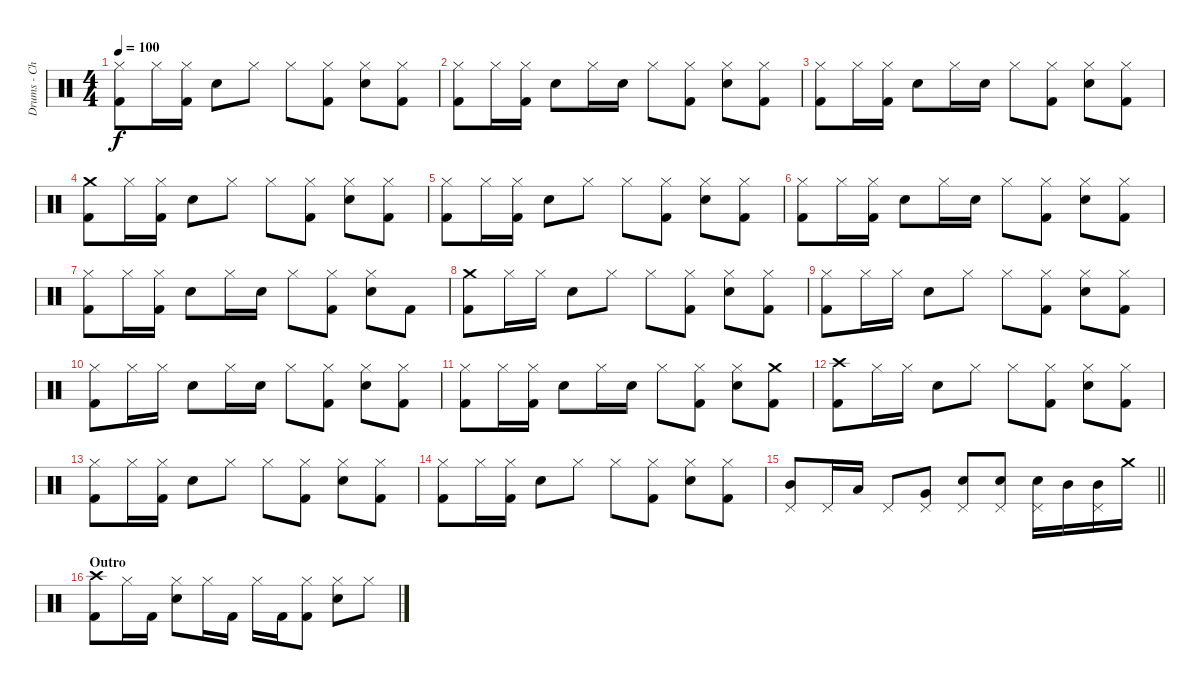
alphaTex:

\track ("Drums - Chad" "Drums - Ch") {instrument percussion}
\staff {score}
\articulation defaults
\ts (4 4)
\tempo 100
\clef neutral
\ks c
("Hi-Hat (closed)" "Kick (hit) 2").8{dy f} "Hi-Hat (closed)".16 ("Hi-Hat (closed)" "Kick (hit) 2").16 "Electric Snare (hit)".8 "Hi-Hat (closed)".8 "Hi-Hat (closed)".8 ("Hi-Hat (closed)" "Kick (hit) 2").8 ("Hi-Hat (closed)" "Electric Snare (hit)").8 ("Hi-Hat (closed)" "Kick (hit) 2").8 |
("Hi-Hat (closed)" "Kick (hit) 2").8 "Hi-Hat (closed)".16 ("Hi-Hat (closed)" "Kick (hit) 2").16 "Electric Snare (hit)".8 "Hi-Hat (closed)".16 "Electric Snare (hit)".16 "Hi-Hat (closed)".8 ("Hi-Hat (closed)" "Kick (hit) 2").8 ("Hi-Hat (closed)" "Electric Snare (hit)").8 ("Hi-Hat (closed)" "Kick (hit) 2").8 |
("Hi-Hat (closed)" "Kick (hit) 2").8 "Hi-Hat (closed)".16 ("Hi-Hat (closed)" "Kick (hit) 2").16 "Electric Snare (hit)".8 "Hi-Hat (closed)".16 "Electric Snare (hit)".16 "Hi-Hat (closed)".8 ("Hi-Hat (closed)" "Kick (hit) 2").8 ("Hi-Hat (closed)" "Electric Snare (hit)").8 ("Hi-Hat (closed)" "Kick (hit) 2").8 |
("Crash medium (hit)" "Kick (hit) 2").8 "Hi-Hat (closed)".16 ("Hi-Hat (closed)" "Kick (hit) 2").16 "Electric Snare (hit)".8 "Hi-Hat (closed)".8 "Hi-Hat (closed)".8 ("Hi-Hat (closed)" "Kick (hit) 2").8 ("Hi-Hat (closed)" "Electric Snare (hit)").8 ("Hi-Hat (closed)" "Kick (hit) 2").8 |
("Hi-Hat (closed)" "Kick (hit) 2").8 "Hi-Hat (closed)".16 ("Hi-Hat (closed)" "Kick (hit) 2").16 "Electric Snare (hit)".8 "Hi-Hat (closed)".8 "Hi-Hat (closed)".8 ("Hi-Hat (closed)" "Kick (hit) 2").8 ("Hi-Hat (closed)" "Electric Snare (hit)").8 ("Hi-Hat (closed)" "Kick (hit) 2").8 |
("Hi-Hat (closed)" "Kick (hit) 2").8 "Hi-Hat (closed)".16 ("Hi-Hat (closed)" "Kick (hit) 2").16 "Electric Snare (hit)".8 "Hi-Hat (closed)".16 "Electric Snare (hit)".16 "Hi-Hat (closed)".8 ("Hi-Hat (closed)" "Kick (hit) 2").8 ("Hi-Hat (closed)" "Electric Snare (hit)").8 ("Hi-Hat (closed)" "Kick (hit) 2").8 |
("Hi-Hat (closed)" "Kick (hit) 2").8 "Hi-Hat (closed)".16 ("Hi-Hat (closed)" "Kick (hit) 2").16 "Electric Snare (hit)".8 "Hi-Hat (closed)".16 "Electric Snare (hit)".16 "Hi-Hat (closed)".8 ("Hi-Hat (closed)" "Kick (hit) 2").8 ("Hi-Hat (closed)" "Electric Snare (hit)").8 "Kick (hit) 2".8 |
("Crash medium (hit)" "Kick (hit) 2").8 "Hi-Hat (closed)".16 "Hi-Hat (closed)".16 "Electric Snare (hit)".8 "Hi-Hat (closed)".8 "Hi-Hat (closed)".8 ("Hi-Hat (closed)" "Kick (hit) 2").8 ("Hi-Hat (closed)" "Electric Snare (hit)").8 ("Hi-Hat (closed)" "Kick (hit) 2").8 |
("Hi-Hat (closed)" "Kick (hit) 2").8 "Hi-Hat (closed)".16 "Hi-Hat (closed)".16 "Electric Snare (hit)".8 "Hi-Hat (closed)".8 "Hi-Hat (closed)".8 ("Hi-Hat (closed)" "Kick (hit) 2").8 ("Hi-Hat (closed)" "Electric Snare (hit)").8 ("Hi-Hat (closed)" "Kick (hit) 2").8 |
("Hi-Hat (closed)" "Kick (hit) 2").8 "Hi-Hat (closed)".16 "Hi-Hat (closed)".16 "Electric Snare (hit)".8 "Hi-Hat (closed)".16 "Electric Snare (hit)".16 "Hi-Hat (closed)".8 ("Hi-Hat (closed)" "Kick (hit) 2").8 ("Hi-Hat (closed)" "Electric Snare (hit)").8 ("Hi-Hat (closed)" "Kick (hit) 2").8 |
("Hi-Hat (closed)" "Kick (hit) 2").8 "Hi-Hat (closed)".16 ("Hi-Hat (closed)" "Kick (hit) 2").16 "Electric Snare (hit)".8 "Hi-Hat (closed)".16 "Electric Snare (hit)".16 "Hi-Hat (closed)".8 ("Hi-Hat (closed)" "Kick (hit) 2").8 ("Hi-Hat (closed)" "Electric Snare (hit)").8 ("Crash medium (hit)" "Kick (hit) 2").8 |
("Crash high (hit)" "Kick (hit) 2").8 "Hi-Hat (closed)".16 "Hi-Hat (closed)".16 "Electric Snare (hit)".8 "Hi-Hat (closed)".8 "Hi-Hat (closed)".8 ("Hi-Hat (closed)" "Kick (hit) 2").8 ("Hi-Hat (closed)" "Electric Snare (hit)").8 ("Hi-Hat (closed)" "Kick (hit) 2").8 |
("Hi-Hat (closed)" "Kick (hit) 2").8 "Hi-Hat (closed)".16 ("Hi-Hat (closed)" "Kick (hit) 2").16 "Electric Snare (hit)".8 "Hi-Hat (closed)".8 "Hi-Hat (closed)".8 ("Hi-Hat (closed)" "Kick (hit) 2").8 ("Hi-Hat (closed)" "Electric Snare (hit)").8 ("Hi-Hat (closed)" "Kick (hit) 2").8 |
("Hi-Hat (closed)" "Kick (hit) 2").8 "Hi-Hat (closed)".16 ("Hi-Hat (closed)" "Kick (hit) 2").16 "Electric Snare (hit)".8 "Hi-Hat (closed)".8 "Hi-Hat (closed)".8 ("Hi-Hat (closed)" "Kick (hit) 2").8 ("Hi-Hat (closed)" "Electric Snare (hit)").8 ("Hi-Hat (closed)" "Kick (hit) 2").8 |
\barLineRight lightlight
("Mid Tom (hit)" "Pedal Hi-Hat (hit)").8 "Pedal Hi-Hat (hit)".16 "Low Tom (hit)".16 "Pedal Hi-Hat (hit)".8 ("Very Low Tom (hit)" "Pedal Hi-Hat (hit)").8 ("Electric Snare (hit)" "Pedal Hi-Hat (hit)").8 ("Electric Snare (hit)" "Pedal Hi-Hat (hit)").8 ("Electric Snare (hit)" "Pedal Hi-Hat (hit)").16 "Mid Tom (hit)".16 ("Mid Tom (hit)" "Pedal Hi-Hat (hit)").16 "Crash medium (hit)".16 |
\section ("" "Outro")
("Crash high (hit)" "Kick (hit) 2").8 "Hi-Hat (closed)".16 "Kick (hit) 2".16 ("Hi-Hat (closed)" "Electric Snare (hit)").8 "Hi-Hat (closed)".16 "Kick (hit) 2".16 "Hi-Hat (closed)".16 "Kick (hit) 2".16 ("Hi-Hat (closed)" "Kick (hit) 2").8 ("Hi-Hat (closed)" "Electric Snare (hit)").8 "Hi-Hat (closed)".8
